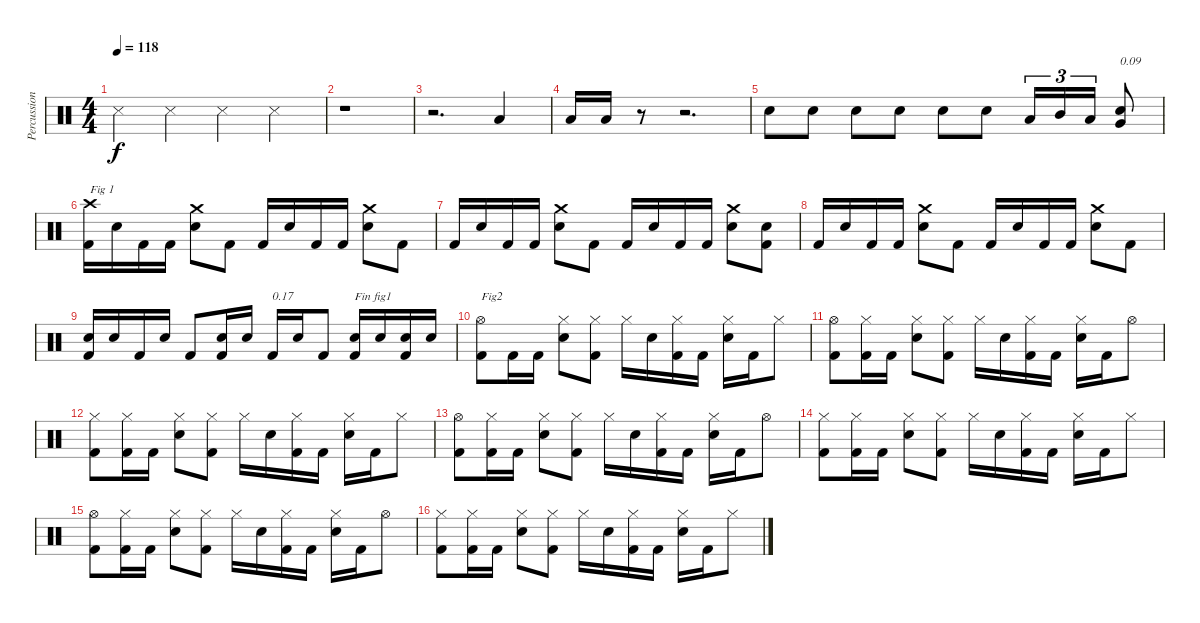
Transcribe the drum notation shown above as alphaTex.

\track ("Percussions" "Percussion") {instrument percussion}
\staff {score}
\articulation defaults
\ts (4 4)
\tempo 118
\clef neutral
\ks c "Metronome (hit)".4{dy f} "Metronome (hit)".4 "Metronome (hit)".4 "Metronome (hit)".4
|
r.1 |
r.2{d} "Low Floor Tom (hit)".4 |
"Low Floor Tom (hit)".16 "Low Floor Tom (hit)".16 r.8 r.2{d} |
"Electric Snare (hit)".8 "Electric Snare (hit)".8 "Electric Snare (hit)".8 "Electric Snare (hit)".8 "Electric Snare (hit)".8 "Electric Snare (hit)".8 "Low Tom (hit)".16{tu (3 2)} "Mid Tom (hit)".16{tu (3 2)} "Low Tom (hit)".16{tu (3 2)} ("Electric Snare (hit)" "Very Low Tom (hit)").8{txt "0.09"} |
("Kick (hit) 2" "Crash high (hit)").16{txt "Fig 1"} "Electric Snare (hit)".16 "Kick (hit) 2".16 "Kick (hit) 2".16 ("Electric Snare (hit)" "Crash medium (hit)").8 "Kick (hit) 2".8 "Kick (hit) 2".16 "Electric Snare (hit)".16 "Kick (hit) 2".16 "Kick (hit) 2".16 ("Electric Snare (hit)" "Crash medium (hit)").8 "Kick (hit) 2".8 |
"Kick (hit) 2".16 "Electric Snare (hit)".16 "Kick (hit) 2".16 "Kick (hit) 2".16 ("Electric Snare (hit)" "Crash medium (hit)").8 "Kick (hit) 2".8 "Kick (hit) 2".16 "Electric Snare (hit)".16 "Kick (hit) 2".16 "Kick (hit) 2".16 ("Electric Snare (hit)" "Crash medium (hit)").8 ("Kick (hit) 2" "Electric Snare (hit)").8 |
"Kick (hit) 2".16 "Electric Snare (hit)".16 "Kick (hit) 2".16 "Kick (hit) 2".16 ("Electric Snare (hit)" "Crash medium (hit)").8 "Kick (hit) 2".8 "Kick (hit) 2".16 "Electric Snare (hit)".16 "Kick (hit) 2".16 "Kick (hit) 2".16 ("Electric Snare (hit)" "Crash medium (hit)").8 "Kick (hit) 2".8 |
("Kick (hit) 2" "Electric Snare (hit)").16 "Electric Snare (hit)".16 "Kick (hit) 2".16 "Electric Snare (hit)".16 "Kick (hit) 2".8 ("Kick (hit) 2" "Electric Snare (hit)").16 "Electric Snare (hit)".16 "Kick (hit) 2".16{txt "0.17"} "Electric Snare (hit)".16 "Kick (hit) 2".8 ("Kick (hit) 2" "Electric Snare (hit)").16{txt "Fin fig1"} "Electric Snare (hit)".16 ("Kick (hit) 2" "Electric Snare (hit)").16 "Electric Snare (hit)".16 |
("Kick (hit) 2" "Hi-Hat (open)").8{txt "Fig2"} "Kick (hit) 2".16 "Kick (hit) 2".16 ("Electric Snare (hit)" "Hi-Hat (closed)").8 ("Kick (hit) 2" "Hi-Hat (closed)").8 "Hi-Hat (closed)".16 "Electric Snare (hit)".16 ("Kick (hit) 2" "Hi-Hat (closed)").16 "Kick (hit) 2".16 ("Electric Snare (hit)" "Hi-Hat (closed)").16 "Kick (hit) 2".16 "Hi-Hat (closed)".8 |
("Kick (hit) 2" "Hi-Hat (open)").8 ("Kick (hit) 2" "Hi-Hat (closed)").16 "Kick (hit) 2".16 ("Electric Snare (hit)" "Hi-Hat (closed)").8 ("Kick (hit) 2" "Hi-Hat (closed)").8 "Hi-Hat (closed)".16 "Electric Snare (hit)".16 ("Kick (hit) 2" "Hi-Hat (closed)").16 "Kick (hit) 2".16 ("Electric Snare (hit)" "Hi-Hat (closed)").16 "Kick (hit) 2".16 "Hi-Hat (open)".8 |
("Kick (hit) 2" "Hi-Hat (closed)").8 ("Kick (hit) 2" "Hi-Hat (closed)").16 "Kick (hit) 2".16 ("Electric Snare (hit)" "Hi-Hat (closed)").8 ("Kick (hit) 2" "Hi-Hat (closed)").8 "Hi-Hat (closed)".16 "Electric Snare (hit)".16 ("Kick (hit) 2" "Hi-Hat (closed)").16 "Kick (hit) 2".16 ("Electric Snare (hit)" "Hi-Hat (closed)").16 "Kick (hit) 2".16 "Hi-Hat (closed)".8 |
("Kick (hit) 2" "Hi-Hat (open)").8 ("Kick (hit) 2" "Hi-Hat (closed)").16 "Kick (hit) 2".16 ("Electric Snare (hit)" "Hi-Hat (closed)").8 ("Kick (hit) 2" "Hi-Hat (closed)").8 "Hi-Hat (closed)".16 "Electric Snare (hit)".16 ("Kick (hit) 2" "Hi-Hat (closed)").16 "Kick (hit) 2".16 ("Electric Snare (hit)" "Hi-Hat (closed)").16 "Kick (hit) 2".16 "Hi-Hat (open)".8 |
("Kick (hit) 2" "Hi-Hat (closed)").8 ("Kick (hit) 2" "Hi-Hat (closed)").16 "Kick (hit) 2".16 ("Electric Snare (hit)" "Hi-Hat (closed)").8 ("Kick (hit) 2" "Hi-Hat (closed)").8 "Hi-Hat (closed)".16 "Electric Snare (hit)".16 ("Kick (hit) 2" "Hi-Hat (closed)").16 "Kick (hit) 2".16 ("Electric Snare (hit)" "Hi-Hat (closed)").16 "Kick (hit) 2".16 "Hi-Hat (closed)".8 |
("Kick (hit) 2" "Hi-Hat (open)").8 ("Kick (hit) 2" "Hi-Hat (closed)").16 "Kick (hit) 2".16 ("Electric Snare (hit)" "Hi-Hat (closed)").8 ("Kick (hit) 2" "Hi-Hat (closed)").8 "Hi-Hat (closed)".16 "Electric Snare (hit)".16 ("Kick (hit) 2" "Hi-Hat (closed)").16 "Kick (hit) 2".16 ("Electric Snare (hit)" "Hi-Hat (closed)").16 "Kick (hit) 2".16 "Hi-Hat (open)".8 |
("Kick (hit) 2" "Hi-Hat (closed)").8 ("Kick (hit) 2" "Hi-Hat (closed)").16 "Kick (hit) 2".16 ("Electric Snare (hit)" "Hi-Hat (closed)").8 ("Kick (hit) 2" "Hi-Hat (closed)").8 "Hi-Hat (closed)".16 "Electric Snare (hit)".16 ("Kick (hit) 2" "Hi-Hat (closed)").16 "Kick (hit) 2".16 ("Electric Snare (hit)" "Hi-Hat (closed)").16 "Kick (hit) 2".16 "Hi-Hat (closed)".8
